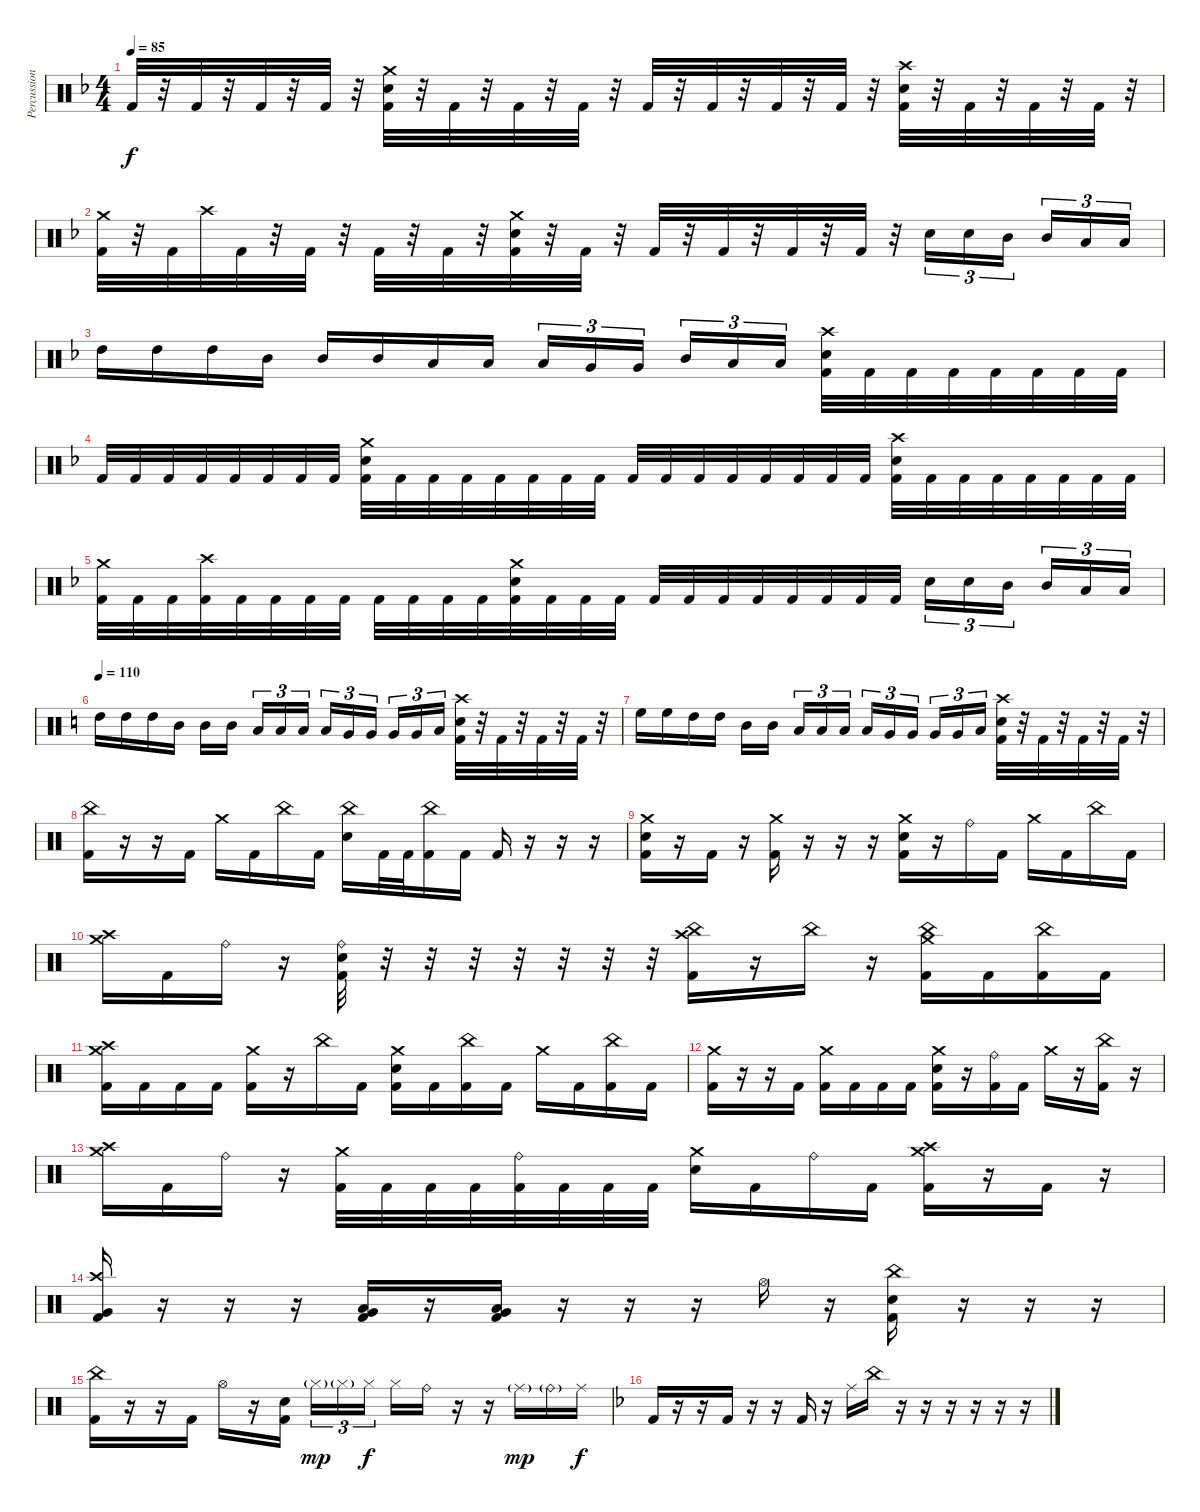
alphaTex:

\track ("Percussion" "Percussion") {instrument percussion}
\staff {score}
\articulation defaults
\ts (4 4)
\tempo 85
\clef neutral
\ks dminor "Kick (hit) 2".32{dy f}
r.32 "Kick (hit) 2".32 r.32 "Kick (hit) 2".32 r.32 "Kick (hit) 2".32 r.32 ("Kick (hit) 2" "Electric Snare (hit)" "Crash medium (hit)").32 r.32 "Kick (hit) 2".32 r.32 "Kick (hit) 2".32 r.32 "Kick (hit) 2".32 r.32 "Kick (hit) 2".32 r.32 "Kick (hit) 2".32 r.32 "Kick (hit) 2".32 r.32 "Kick (hit) 2".32 r.32 ("Kick (hit) 2" "Electric Snare (hit)" "Crash high (hit)").32 r.32 "Kick (hit) 2".32 r.32 "Kick (hit) 2".32 r.32 "Kick (hit) 2".32 r.32 |
("Kick (hit) 2" "Crash medium (hit)").32 r.32 "Kick (hit) 2".32 "Crash high (hit)".32 "Kick (hit) 2".32 r.32 "Kick (hit) 2".32 r.32 "Kick (hit) 2".32 r.32 "Kick (hit) 2".32 r.32 ("Kick (hit) 2" "Electric Snare (hit)" "Crash medium (hit)").32 r.32 "Kick (hit) 2".32 r.32 "Kick (hit) 2".32 r.32 "Kick (hit) 2".32 r.32 "Kick (hit) 2".32 r.32 "Kick (hit) 2".32 r.32 "Electric Snare (hit)".16{tu (3 2)} "Electric Snare (hit)".16{tu (3 2)} "Mid Tom (hit)".16{tu (3 2)} "Mid Tom (hit)".16{tu (3 2)} "Low Tom (hit)".16{tu (3 2)} "Low Tom (hit)".16{tu (3 2)} |
"High Tom (hit)".16 "High Tom (hit)".16 "High Tom (hit)".16 "Mid Tom (hit)".16 "Mid Tom (hit)".16 "Mid Tom (hit)".16 "Low Tom (hit)".16 "Low Tom (hit)".16 "Low Tom (hit)".16{tu (3 2)} "Very Low Tom (hit)".16{tu (3 2)} "Very Low Tom (hit)".16{tu (3 2)} "Mid Tom (hit)".16{tu (3 2)} "Low Floor Tom (hit)".16{tu (3 2)} "Low Floor Tom (hit)".16{tu (3 2)} ("Kick (hit) 2" "Electric Snare (hit)" "Crash high (hit)").32 "Kick (hit) 2".32 "Kick (hit) 2".32 "Kick (hit) 2".32 "Kick (hit) 2".32 "Kick (hit) 2".32 "Kick (hit) 2".32 "Kick (hit) 2".32 |
"Kick (hit) 2".32 "Kick (hit) 2".32 "Kick (hit) 2".32 "Kick (hit) 2".32 "Kick (hit) 2".32 "Kick (hit) 2".32 "Kick (hit) 2".32 "Kick (hit) 2".32 ("Kick (hit) 2" "Electric Snare (hit)" "Crash medium (hit)").32 "Kick (hit) 2".32 "Kick (hit) 2".32 "Kick (hit) 2".32 "Kick (hit) 2".32 "Kick (hit) 2".32 "Kick (hit) 2".32 "Kick (hit) 2".32 "Kick (hit) 2".32 "Kick (hit) 2".32 "Kick (hit) 2".32 "Kick (hit) 2".32 "Kick (hit) 2".32 "Kick (hit) 2".32 "Kick (hit) 2".32 "Kick (hit) 2".32 ("Kick (hit) 2" "Electric Snare (hit)" "Crash high (hit)").32 "Kick (hit) 2".32 "Kick (hit) 2".32 "Kick (hit) 2".32 "Kick (hit) 2".32 "Kick (hit) 2".32 "Kick (hit) 2".32 "Kick (hit) 2".32 |
("Kick (hit) 2" "Crash medium (hit)").32 "Kick (hit) 2".32 "Kick (hit) 2".32 ("Kick (hit) 2" "Crash high (hit)").32 "Kick (hit) 2".32 "Kick (hit) 2".32 "Kick (hit) 2".32 "Kick (hit) 2".32 "Kick (hit) 2".32 "Kick (hit) 2".32 "Kick (hit) 2".32 "Kick (hit) 2".32 ("Kick (hit) 2" "Electric Snare (hit)" "Crash medium (hit)").32 "Kick (hit) 2".32 "Kick (hit) 2".32 "Kick (hit) 2".32 "Kick (hit) 2".32 "Kick (hit) 2".32 "Kick (hit) 2".32 "Kick (hit) 2".32 "Kick (hit) 2".32 "Kick (hit) 2".32 "Kick (hit) 2".32 "Kick (hit) 2".32 "Electric Snare (hit)".16{tu (3 2)} "Electric Snare (hit)".16{tu (3 2)} "Mid Tom (hit)".16{tu (3 2)} "Mid Tom (hit)".16{tu (3 2)} "Low Tom (hit)".16{tu (3 2)} "Low Tom (hit)".16{tu (3 2)} |
\tempo 110
\ks c "High Tom (hit)".16 "High Tom (hit)".16 "High Tom (hit)".16 "Mid Tom (hit)".16 "Mid Tom (hit)".16 "Mid Tom (hit)".16 "Low Tom (hit)".16{tu (3 2)} "Low Tom (hit)".16{tu (3 2)} "Low Tom (hit)".16{tu (3 2)} "Low Tom (hit)".16{tu (3 2)} "Very Low Tom (hit)".16{tu (3 2)} "Very Low Tom (hit)".16{tu (3 2)} "Very Low Tom (hit)".16{tu (3 2)} "Very Low Tom (hit)".16{tu (3 2)} "Low Floor Tom (hit)".16{tu (3 2)}
("Kick (hit) 2" "Electric Snare (hit)" "Crash high (hit)").32 r.32 "Kick (hit) 2".32 r.32 "Kick (hit) 2".32 r.32 "Kick (hit) 2".32 r.32 |
"High Floor Tom (hit)".16 "High Floor Tom (hit)".16 "High Tom (hit)".16 "High Tom (hit)".16 "Mid Tom (hit)".16 "Mid Tom (hit)".16 "Low Tom (hit)".16{tu (3 2)} "Low Tom (hit)".16{tu (3 2)} "Low Tom (hit)".16{tu (3 2)} "Low Tom (hit)".16{tu (3 2)} "Very Low Tom (hit)".16{tu (3 2)} "Very Low Tom (hit)".16{tu (3 2)} "Very Low Tom (hit)".16{tu (3 2)} "Very Low Tom (hit)".16{tu (3 2)} "Low Floor Tom (hit)".16{tu (3 2)} ("Kick (hit) 2" "Electric Snare (hit)" "Crash high (hit)").32 r.32 "Kick (hit) 2".32 r.32 "Kick (hit) 2".32 r.32 "Kick (hit) 2".32 r.32 |
("Kick (hit) 2" "China (hit)").16 r.16 r.16 "Kick (hit) 2".16 "Crash medium (hit)".16 "Kick (hit) 2".16 "China (hit)".16 "Kick (hit) 2".16 ("China (hit)" "Electric Snare (hit)").16 "Kick (hit) 2".32 "Kick (hit) 2".32 ("Kick (hit) 2" "China (hit)").16 "Kick (hit) 2".16 "Kick (hit) 2".16 r.16{volume 0} r.16 r.16 |
("Kick (hit) 2" "Electric Snare (hit)" "Crash medium (hit)").16{volume 13} r.16 "Kick (hit) 2".16 r.16 ("Kick (hit) 2" "Crash medium (hit)").16 r.16 r.16 r.16 ("Kick (hit) 2" "Crash medium (hit)" "Electric Snare (hit)").16 r.16 "Ride (bell)".16 "Kick (hit) 2".16 "Crash medium (hit)".16 "Kick (hit) 2".16 "China (hit)".16 "Kick (hit) 2".16 |
("Crash medium (hit)" "Crash high (hit)").16 "Kick (hit) 2".16 "Ride (bell)".16 r.16 ("Kick (hit) 2" "Electric Snare (hit)" "Ride (bell)").32 r.32 r.32 r.32 r.32 r.32 r.32 r.32 ("Kick (hit) 2" "China (hit)" "Crash high (hit)").16 r.16 "China (hit)".16 r.16 ("Kick (hit) 2" "China (hit)" "Crash medium (hit)").16 "Kick (hit) 2".16 ("Kick (hit) 2" "China (hit)").16 "Kick (hit) 2".16 |
("Kick (hit) 2" "Crash high (hit)" "Crash medium (hit)").16 "Kick (hit) 2".16 "Kick (hit) 2".16 "Kick (hit) 2".16 ("Kick (hit) 2" "Crash medium (hit)").16 r.16 "China (hit)".16 "Kick (hit) 2".16 ("Kick (hit) 2" "Crash medium (hit)" "Electric Snare (hit)").16 "Kick (hit) 2".16 ("Kick (hit) 2" "China (hit)").16 "Kick (hit) 2".16 "Crash medium (hit)".16 "Kick (hit) 2".16 ("Kick (hit) 2" "China (hit)").16 "Kick (hit) 2".16 |
("Kick (hit) 2" "Crash medium (hit)").16 r.16 r.16 "Kick (hit) 2".16 ("Kick (hit) 2" "Crash medium (hit)").16 "Kick (hit) 2".16 "Kick (hit) 2".16 "Kick (hit) 2".16 ("Kick (hit) 2" "Crash medium (hit)" "Electric Snare (hit)").16 r.16 ("Kick (hit) 2" "Ride (bell)").16 "Kick (hit) 2".16 "Crash medium (hit)".16 r.16 ("Kick (hit) 2" "China (hit)").16 r.16 |
("Crash medium (hit)" "Crash high (hit)").16 "Kick (hit) 2".16 "Ride (bell)".16 r.16 ("Kick (hit) 2" "Crash medium (hit)").32 "Kick (hit) 2".32 "Kick (hit) 2".32 "Kick (hit) 2".32 ("Kick (hit) 2" "Ride (bell)").32 "Kick (hit) 2".32 "Kick (hit) 2".32 "Kick (hit) 2".32 ("Crash medium (hit)" "Electric Snare (hit)").16 "Kick (hit) 2".16 "Ride (bell)".16 "Kick (hit) 2".16 ("Kick (hit) 2" "Crash high (hit)" "Crash medium (hit)").16 r.16 "Kick (hit) 2".16 r.16 |
("Kick (hit) 2" "Very Low Tom (hit)" "Crash high (hit)").16 r.16 r.16 r.16 ("Kick (hit) 2" "Very Low Tom (hit)" "Low Floor Tom (hit)").16 r.16 ("Kick (hit) 2" "Very Low Tom (hit)" "Low Floor Tom (hit)").16 r.16 r.16 r.16 "Hi-Hat (open)".16 r.16 ("Kick (hit) 2" "Electric Snare (hit)" "China (hit)").16 r.16 r.16 r.16 |
("Kick (hit) 2" "China (hit)").16 r.16 r.16 "Kick (hit) 2".16 "Hi-Hat (open)".16 r.16 ("Kick (hit) 2" "Electric Snare (hit)").16 "Hi-Hat (closed)"{g}.16{tu (3 2) dy mp} "Hi-Hat (closed)"{g}.16{tu (3 2)} "Hi-Hat (closed)".16{tu (3 2) dy f} "Hi-Hat (closed)".16 "Ride (bell)".16 r.16 r.16 "Ride (middle)"{g}.16{dy mp} "Ride (bell)"{g}.16 "Ride (middle)".16{dy f} |
\ks dminor "Kick (hit) 2".16
r.16 r.16 "Kick (hit) 2".16 r.16 r.16 "Kick (hit) 2".16 r.16 "Ride (middle)".16 "China (hit)".16 r.16 r.16 r.16 r.16 r.16 r.16
